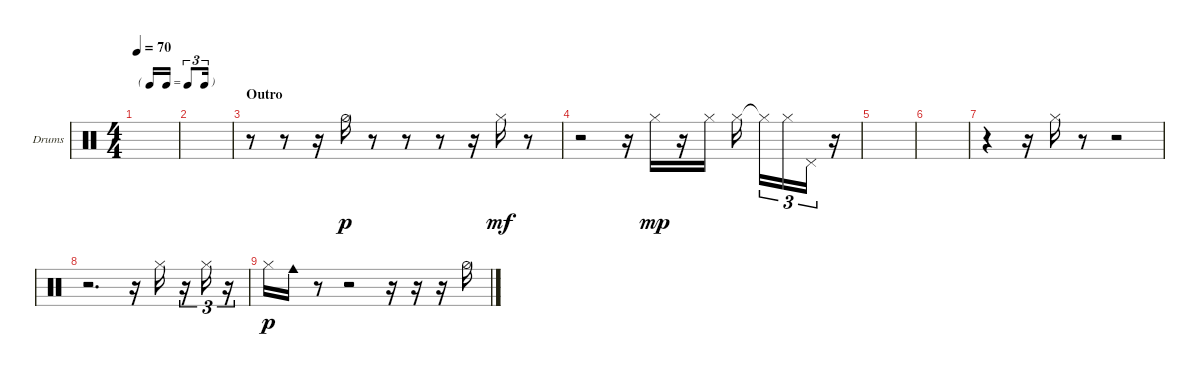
\bracketExtendMode groupsimilarinstruments
\firstSystemTrackNameOrientation horizontal
\otherSystemsTrackNameOrientation horizontal
\track ("HH" "Drums") {instrument percussion}
\staff {score}
\articulation defaults
\ts (4 4)
\tf triplet16th
\tempo 70
\clef neutral
\ks aminor
|
|
\section ("" "Outro")
r.8 r.8 r.16 "Hi-Hat (half)".16{dy p} r.8 r.8 r.8 r.16 "Hi-Hat (closed)".16{dy mf} r.8 |
r.2 r.16 "Hi-Hat (closed)".16{dy mp} r.16 "Hi-Hat (closed)".16 "Hi-Hat (closed)".16 "Hi-Hat (closed)"{t}.16{tu (3 2)} "Hi-Hat (closed)".16{tu (3 2)} "Pedal Hi-Hat (hit)".16{tu (3 2)} r.16 |
|
|
r.4 r.16 "Hi-Hat (closed)".16 r.8 r.2 |
r.2{d} r.16 "Hi-Hat (closed)".16 r.16{tu (3 2)} "Hi-Hat (closed)".16{tu (3 2)} r.16{tu (3 2)} |
"Hi-Hat (closed)".16{dy p} "Cowbell medium (hit)".16 r.8 r.2 r.16 r.16 r.16 "Hi-Hat (half)".16
